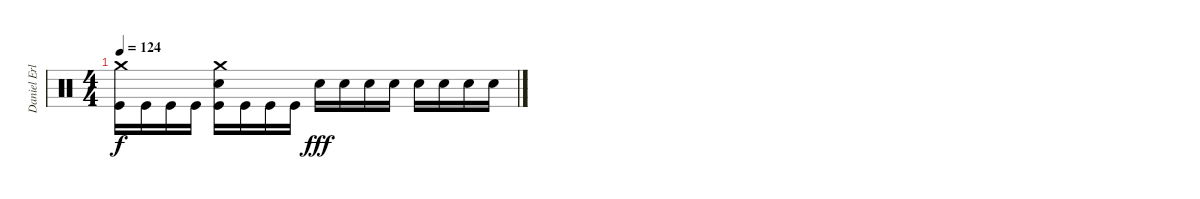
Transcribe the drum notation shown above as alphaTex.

\track ("Daniel Erlandsson" "Daniel Erl") {instrument percussion}
\staff {score}
\articulation defaults
\ts (4 4)
\tempo 124
\clef neutral
\ks c
("Crash medium (hit)" "Kick (hit)").16{dy f} "Kick (hit)".16 "Kick (hit)".16 "Kick (hit)".16 ("Crash medium (hit)" "Snare (hit) 2" "Kick (hit)").16 "Kick (hit)".16 "Kick (hit)".16 "Kick (hit)".16 "Snare (hit) 2".16{dy fff} "Snare (hit) 2".16 "Snare (hit) 2".16 "Snare (hit) 2".16 "Snare (hit) 2".16 "Snare (hit) 2".16 "Snare (hit) 2".16 "Snare (hit) 2".16
